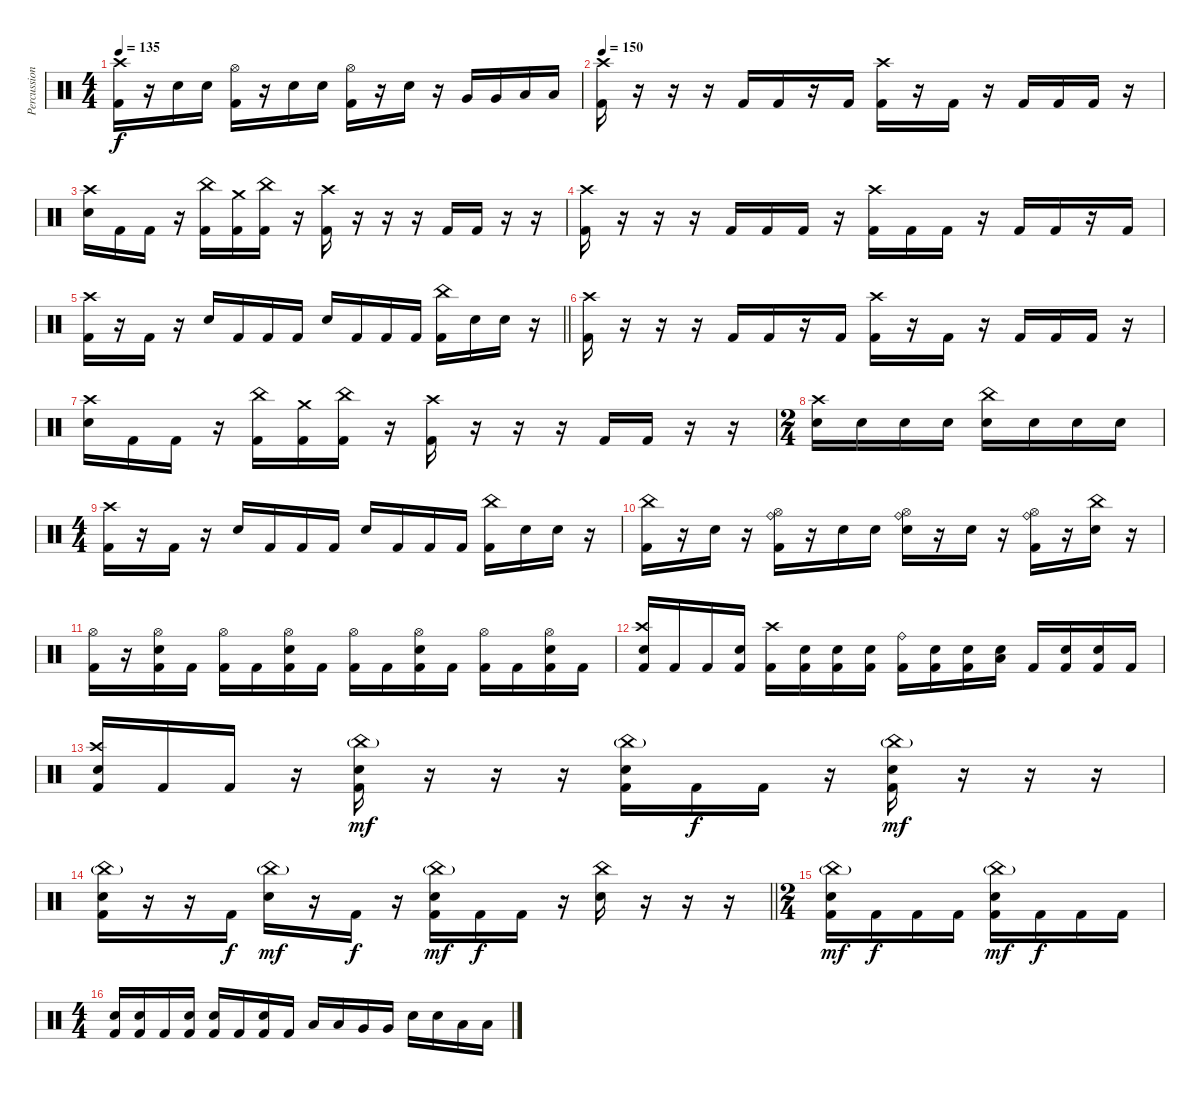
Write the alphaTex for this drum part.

\track ("Percussion" "Percussion") {instrument percussion}
\staff {score}
\articulation defaults
\ts (4 4)
\tempo 135
\clef neutral
\ks c
("Kick (hit) 2" "Crash high (hit)").16{dy f} r.16 "Electric Snare (hit)".16 "Electric Snare (hit)".16 ("Kick (hit) 2" "Hi-Hat (open)").16 r.16 "Electric Snare (hit)".16 "Electric Snare (hit)".16 ("Kick (hit) 2" "Hi-Hat (open)").16 r.16 "Electric Snare (hit)".16 r.16 "Very Low Tom (hit)".16 "Very Low Tom (hit)".16 "Low Floor Tom (hit)".16 "Low Floor Tom (hit)".16 |
\tempo 150
("Kick (hit) 2" "Crash high (hit)").16 r.16 r.16 r.16 "Kick (hit) 2".16 "Kick (hit) 2".16 r.16 "Kick (hit) 2".16 ("Kick (hit) 2" "Crash high (hit)").16 r.16 "Kick (hit) 2".16 r.16 "Kick (hit) 2".16 "Kick (hit) 2".16 "Kick (hit) 2".16 r.16 |
("Electric Snare (hit)" "Crash high (hit)").16 "Kick (hit) 2".16 "Kick (hit) 2".16 r.16 ("Kick (hit) 2" "China (hit)").16 ("Kick (hit) 2" "Crash medium (hit)").16 ("Kick (hit) 2" "China (hit)").16 r.16 ("Kick (hit) 2" "Crash high (hit)").16 r.16 r.16 r.16 "Kick (hit) 2".16 "Kick (hit) 2".16 r.16 r.16 |
("Kick (hit) 2" "Crash high (hit)").16 r.16 r.16 r.16 "Kick (hit) 2".16 "Kick (hit) 2".16 "Kick (hit) 2".16 r.16 ("Kick (hit) 2" "Crash high (hit)").16 "Kick (hit) 2".16 "Kick (hit) 2".16 r.16 "Kick (hit) 2".16 "Kick (hit) 2".16 r.16 "Kick (hit) 2".16 |
\barLineRight lightlight
("Kick (hit) 2" "Crash high (hit)").16 r.16 "Kick (hit) 2".16 r.16 "Electric Snare (hit)".16 "Kick (hit) 2".16 "Kick (hit) 2".16 "Kick (hit) 2".16 "Electric Snare (hit)".16 "Kick (hit) 2".16 "Kick (hit) 2".16 "Kick (hit) 2".16 ("Kick (hit) 2" "China (hit)").16 "Electric Snare (hit)".16 "Electric Snare (hit)".16 r.16 |
("Kick (hit) 2" "Crash high (hit)").16 r.16 r.16 r.16 "Kick (hit) 2".16 "Kick (hit) 2".16 r.16 "Kick (hit) 2".16 ("Kick (hit) 2" "Crash high (hit)").16 r.16 "Kick (hit) 2".16 r.16 "Kick (hit) 2".16 "Kick (hit) 2".16 "Kick (hit) 2".16 r.16 |
("Electric Snare (hit)" "Crash high (hit)").16 "Kick (hit) 2".16 "Kick (hit) 2".16 r.16 ("Kick (hit) 2" "China (hit)").16 ("Kick (hit) 2" "Crash medium (hit)").16 ("Kick (hit) 2" "China (hit)").16 r.16 ("Kick (hit) 2" "Crash high (hit)").16 r.16 r.16 r.16 "Kick (hit) 2".16 "Kick (hit) 2".16 r.16 r.16 |
\ts (2 4)
("Electric Snare (hit)" "Crash high (hit)").16 "Electric Snare (hit)".16 "Electric Snare (hit)".16 "Electric Snare (hit)".16 ("Electric Snare (hit)" "China (hit)").16 "Electric Snare (hit)".16 "Electric Snare (hit)".16 "Electric Snare (hit)".16 |
\ts (4 4)
("Kick (hit) 2" "Crash high (hit)").16 r.16 "Kick (hit) 2".16 r.16 "Electric Snare (hit)".16 "Kick (hit) 2".16 "Kick (hit) 2".16 "Kick (hit) 2".16 "Electric Snare (hit)".16 "Kick (hit) 2".16 "Kick (hit) 2".16 "Kick (hit) 2".16 ("Kick (hit) 2" "China (hit)").16 "Electric Snare (hit)".16 "Electric Snare (hit)".16 r.16 |
("Kick (hit) 2" "China (hit)").16 r.16 "Electric Snare (hit)".16 r.16 ("Kick (hit) 2" "Ride (bell)" "Hi-Hat (open)").16 r.16 "Electric Snare (hit)".16 "Electric Snare (hit)".16 ("Electric Snare (hit)" "Ride (bell)" "Hi-Hat (open)").16 r.16 "Electric Snare (hit)".16 r.16 ("Kick (hit) 2" "Ride (bell)" "Hi-Hat (open)").16 r.16 ("Electric Snare (hit)" "China (hit)").16 r.16 |
("Kick (hit) 2" "Hi-Hat (open)").16 r.16 ("Kick (hit) 2" "Electric Snare (hit)" "Hi-Hat (open)").16 "Kick (hit) 2".16 ("Kick (hit) 2" "Hi-Hat (open)").16 "Kick (hit) 2".16 ("Kick (hit) 2" "Electric Snare (hit)" "Hi-Hat (open)").16 "Kick (hit) 2".16 ("Kick (hit) 2" "Hi-Hat (open)").16 "Kick (hit) 2".16 ("Kick (hit) 2" "Electric Snare (hit)" "Hi-Hat (open)").16 "Kick (hit) 2".16 ("Kick (hit) 2" "Hi-Hat (open)").16 "Kick (hit) 2".16 ("Kick (hit) 2" "Electric Snare (hit)" "Hi-Hat (open)").16 "Kick (hit) 2".16 |
("Kick (hit) 2" "Electric Snare (hit)" "Crash high (hit)").16 "Kick (hit) 2".16 "Kick (hit) 2".16 ("Kick (hit) 2" "Electric Snare (hit)").16 ("Kick (hit) 2" "Crash high (hit)").16 ("Kick (hit) 2" "Electric Snare (hit)").16 ("Kick (hit) 2" "Electric Snare (hit)").16 ("Kick (hit) 2" "Electric Snare (hit)").16 ("Kick (hit) 2" "Ride (bell)").16 ("Kick (hit) 2" "Electric Snare (hit)").16 ("Kick (hit) 2" "Electric Snare (hit)").16 ("Low Tom (hit)" "Electric Snare (hit)").16 "Kick (hit) 2".16 ("Kick (hit) 2" "Electric Snare (hit)").16 ("Kick (hit) 2" "Electric Snare (hit)").16 "Kick (hit) 2".16 |
("Kick (hit) 2" "Electric Snare (hit)" "Crash high (hit)").16 "Kick (hit) 2".16 "Kick (hit) 2".16 r.16 ("Kick (hit) 2" "Electric Snare (hit)" "China (hit)"{g}).16{dy mf} r.16 r.16 r.16 ("Kick (hit) 2" "Electric Snare (hit)" "China (hit)"{g}).16 "Kick (hit) 2".16{dy f} "Kick (hit) 2".16 r.16 ("Kick (hit) 2" "Electric Snare (hit)" "China (hit)"{g}).16{dy mf} r.16 r.16 r.16 |
\barLineRight lightlight
("Kick (hit) 2" "Electric Snare (hit)" "China (hit)"{g}).16 r.16 r.16 "Kick (hit) 2".16{dy f} ("Electric Snare (hit)" "China (hit)"{g}).16{dy mf} r.16 "Kick (hit) 2".16{dy f} r.16 ("Kick (hit) 2" "Electric Snare (hit)" "China (hit)"{g}).16{dy mf} "Kick (hit) 2".16{dy f} "Kick (hit) 2".16 r.16 ("Electric Snare (hit)" "China (hit)").16 r.16 r.16 r.16 |
\ts (2 4)
("Kick (hit) 2" "Electric Snare (hit)" "China (hit)"{g}).16{dy mf} "Kick (hit) 2".16{dy f} "Kick (hit) 2".16 "Kick (hit) 2".16 ("Kick (hit) 2" "Electric Snare (hit)" "China (hit)"{g}).16{dy mf} "Kick (hit) 2".16{dy f} "Kick (hit) 2".16 "Kick (hit) 2".16 |
\ts (4 4)
("Kick (hit) 2" "Electric Snare (hit)").16 ("Kick (hit) 2" "Electric Snare (hit)").16 "Kick (hit) 2".16 ("Kick (hit) 2" "Electric Snare (hit)").16 ("Kick (hit) 2" "Electric Snare (hit)").16 "Kick (hit) 2".16 ("Kick (hit) 2" "Electric Snare (hit)").16 "Kick (hit) 2".16 "Low Tom (hit)".16 "Low Tom (hit)".16 "Very Low Tom (hit)".16 "Very Low Tom (hit)".16 "Electric Snare (hit)".16 "Electric Snare (hit)".16 "Low Floor Tom (hit)".16 "Low Floor Tom (hit)".16
